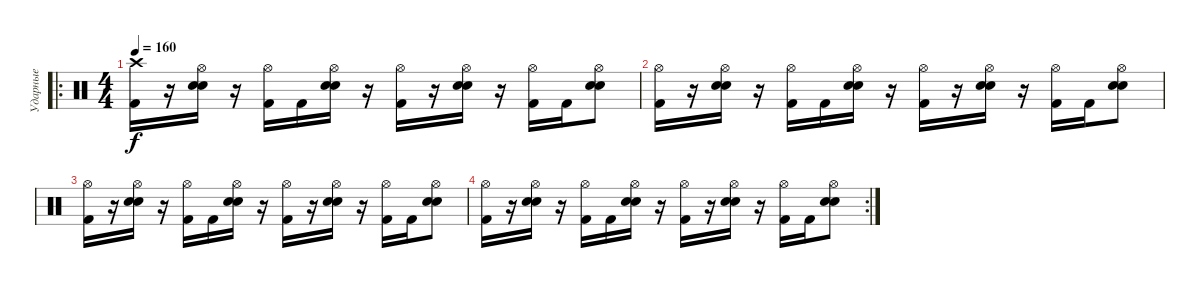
\track ("Ударные" "Ударные") {instrument percussion}
\staff {score}
\articulation defaults
\ro
\ts (4 4)
\tempo 160
\clef neutral
\ks c
("Crash high (hit)" "Kick (hit) 2").16{dy f} r.16 ("Hi-Hat (open)" "Electric Snare (hit)" "Snare (hit) 2").16 r.16 ("Hi-Hat (open)" "Kick (hit) 2").16 "Kick (hit) 2".16 ("Hi-Hat (open)" "Electric Snare (hit)" "Snare (hit) 2").16 r.16 ("Hi-Hat (open)" "Kick (hit) 2").16 r.16 ("Hi-Hat (open)" "Electric Snare (hit)" "Snare (hit) 2").16 r.16 ("Hi-Hat (open)" "Kick (hit) 2").16 "Kick (hit) 2".16 ("Hi-Hat (open)" "Electric Snare (hit)" "Snare (hit) 2").8 |
("Hi-Hat (open)" "Kick (hit) 2").16 r.16 ("Hi-Hat (open)" "Electric Snare (hit)" "Snare (hit) 2").16 r.16 ("Hi-Hat (open)" "Kick (hit) 2").16 "Kick (hit) 2".16 ("Hi-Hat (open)" "Electric Snare (hit)" "Snare (hit) 2").16 r.16 ("Hi-Hat (open)" "Kick (hit) 2").16 r.16 ("Hi-Hat (open)" "Electric Snare (hit)" "Snare (hit) 2").16 r.16 ("Hi-Hat (open)" "Kick (hit) 2").16 "Kick (hit) 2".16 ("Hi-Hat (open)" "Electric Snare (hit)" "Snare (hit) 2").8 |
("Hi-Hat (open)" "Kick (hit) 2").16 r.16 ("Hi-Hat (open)" "Electric Snare (hit)" "Snare (hit) 2").16 r.16 ("Hi-Hat (open)" "Kick (hit) 2").16 "Kick (hit) 2".16 ("Hi-Hat (open)" "Electric Snare (hit)" "Snare (hit) 2").16 r.16 ("Hi-Hat (open)" "Kick (hit) 2").16 r.16 ("Hi-Hat (open)" "Electric Snare (hit)" "Snare (hit) 2").16 r.16 ("Hi-Hat (open)" "Kick (hit) 2").16 "Kick (hit) 2".16 ("Hi-Hat (open)" "Electric Snare (hit)" "Snare (hit) 2").8 |
\rc 2
("Hi-Hat (open)" "Kick (hit) 2").16 r.16 ("Hi-Hat (open)" "Electric Snare (hit)" "Snare (hit) 2").16 r.16 ("Hi-Hat (open)" "Kick (hit) 2").16 "Kick (hit) 2".16 ("Hi-Hat (open)" "Electric Snare (hit)" "Snare (hit) 2").16 r.16 ("Hi-Hat (open)" "Kick (hit) 2").16 r.16 ("Hi-Hat (open)" "Electric Snare (hit)" "Snare (hit) 2").16 r.16 ("Hi-Hat (open)" "Kick (hit) 2").16 "Kick (hit) 2".16 ("Hi-Hat (open)" "Electric Snare (hit)" "Snare (hit) 2").8
